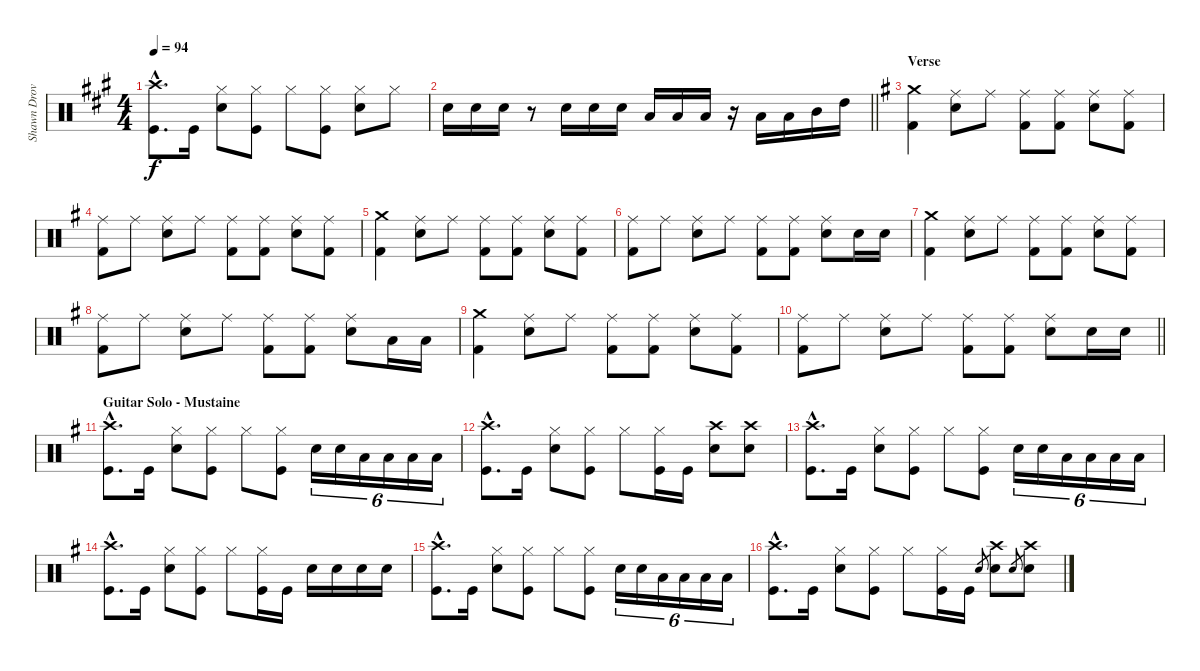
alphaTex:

\track ("Shawn Drover" "Shawn Drov") {instrument percussion}
\staff {score}
\articulation defaults
\ts (4 4)
\tempo 94
\clef neutral
\ks a
("Kick (hit)"{hac} "Crash high (hit)"{hac}).8{d dy f} "Kick (hit)".16 ("Hi-Hat (closed)" "Snare (hit) 2").8 ("Kick (hit)" "Hi-Hat (closed)").8 "Hi-Hat (closed)".8 ("Kick (hit)" "Hi-Hat (closed)").8 ("Hi-Hat (closed)" "Snare (hit) 2").8 "Hi-Hat (closed)".8 |
\barLineRight lightlight "Snare (hit) 2".16 "Snare (hit) 2".16 "Snare (hit) 2".16
r.8 "Snare (hit) 2".16 "Snare (hit) 2".16 "Snare (hit) 2".16 "Low Tom (hit)".16 "Low Tom (hit)".16 "Low Tom (hit)".16 r.16 "Low Tom (hit)".16 "Low Tom (hit)".16 "Mid Tom (hit)".16 "High Tom (hit)".16 |
\section ("" "Verse")
\ks g
("Crash medium (hit)" "Kick (hit) 2").4 ("Ride (middle)" "Snare (hit) 2").8 "Ride (middle)".8 ("Ride (middle)" "Kick (hit) 2").8 ("Ride (middle)" "Kick (hit) 2").8 ("Ride (middle)" "Snare (hit) 2").8 ("Ride (middle)" "Kick (hit) 2").8 |
("Ride (middle)" "Kick (hit) 2").8 "Ride (middle)".8 ("Ride (middle)" "Snare (hit) 2").8 "Ride (middle)".8 ("Ride (middle)" "Kick (hit) 2").8 ("Ride (middle)" "Kick (hit) 2").8 ("Ride (middle)" "Snare (hit) 2").8 ("Ride (middle)" "Kick (hit) 2").8 |
("Crash medium (hit)" "Kick (hit) 2").4 ("Ride (middle)" "Snare (hit) 2").8 "Ride (middle)".8 ("Ride (middle)" "Kick (hit) 2").8 ("Ride (middle)" "Kick (hit) 2").8 ("Ride (middle)" "Snare (hit) 2").8 ("Ride (middle)" "Kick (hit) 2").8 |
("Ride (middle)" "Kick (hit) 2").8 "Ride (middle)".8 ("Ride (middle)" "Snare (hit) 2").8 "Ride (middle)".8 ("Ride (middle)" "Kick (hit) 2").8 ("Ride (middle)" "Kick (hit) 2").8 ("Ride (middle)" "Snare (hit) 2").8 "Snare (hit) 2".16 "Snare (hit) 2".16 |
("Crash medium (hit)" "Kick (hit) 2").4 ("Ride (middle)" "Snare (hit) 2").8 "Ride (middle)".8 ("Ride (middle)" "Kick (hit) 2").8 ("Ride (middle)" "Kick (hit) 2").8 ("Ride (middle)" "Snare (hit) 2").8 ("Ride (middle)" "Kick (hit) 2").8 |
("Ride (middle)" "Kick (hit) 2").8 "Ride (middle)".8 ("Ride (middle)" "Snare (hit) 2").8 "Ride (middle)".8 ("Ride (middle)" "Kick (hit) 2").8 ("Ride (middle)" "Kick (hit) 2").8 ("Ride (middle)" "Snare (hit) 2").8 "Low Tom (hit)".16 "Low Tom (hit)".16 |
("Crash medium (hit)" "Kick (hit) 2").4 ("Ride (middle)" "Snare (hit) 2").8 "Ride (middle)".8 ("Ride (middle)" "Kick (hit) 2").8 ("Ride (middle)" "Kick (hit) 2").8 ("Ride (middle)" "Snare (hit) 2").8 ("Ride (middle)" "Kick (hit) 2").8 |
\barLineRight lightlight
("Ride (middle)" "Kick (hit) 2").8 "Ride (middle)".8 ("Ride (middle)" "Snare (hit) 2").8 "Ride (middle)".8 ("Ride (middle)" "Kick (hit) 2").8 ("Ride (middle)" "Kick (hit) 2").8 ("Ride (middle)" "Snare (hit) 2").8 "Snare (hit) 2".16 "Snare (hit) 2".16 |
\section ("" "Guitar Solo - Mustaine")
("Kick (hit)"{hac} "Crash high (hit)"{hac}).8{d} "Kick (hit)".16 ("Hi-Hat (closed)" "Snare (hit) 2").8 ("Kick (hit)" "Hi-Hat (closed)").8 "Hi-Hat (closed)".8 ("Kick (hit)" "Hi-Hat (closed)").8 "Snare (hit) 2".16{tu (6 4)} "Snare (hit) 2".16{tu (6 4)} "Low Tom (hit)".16{tu (6 4)} "Low Tom (hit)".16{tu (6 4)} "Low Tom (hit)".16{tu (6 4)} "Low Tom (hit)".16{tu (6 4)} |
("Kick (hit)"{hac} "Crash high (hit)"{hac}).8{d} "Kick (hit)".16 ("Hi-Hat (closed)" "Snare (hit) 2").8 ("Kick (hit)" "Hi-Hat (closed)").8 "Hi-Hat (closed)".8 ("Kick (hit)" "Hi-Hat (closed)").16 "Kick (hit)".16 ("Crash high (hit)" "Snare (hit) 2").8 ("Crash high (hit)" "Snare (hit) 2").8 |
("Kick (hit)"{hac} "Crash high (hit)"{hac}).8{d} "Kick (hit)".16 ("Hi-Hat (closed)" "Snare (hit) 2").8 ("Kick (hit)" "Hi-Hat (closed)").8 "Hi-Hat (closed)".8 ("Kick (hit)" "Hi-Hat (closed)").8 "Snare (hit) 2".16{tu (6 4)} "Snare (hit) 2".16{tu (6 4)} "Low Tom (hit)".16{tu (6 4)} "Low Tom (hit)".16{tu (6 4)} "Low Tom (hit)".16{tu (6 4)} "Low Tom (hit)".16{tu (6 4)} |
("Kick (hit)"{hac} "Crash high (hit)"{hac}).8{d} "Kick (hit)".16 ("Hi-Hat (closed)" "Snare (hit) 2").8 ("Kick (hit)" "Hi-Hat (closed)").8 "Hi-Hat (closed)".8 ("Kick (hit)" "Hi-Hat (closed)").16 "Kick (hit)".16 "Snare (hit) 2".16 "Snare (hit) 2".16 "Snare (hit) 2".16 "Snare (hit) 2".16 |
("Kick (hit)"{hac} "Crash high (hit)"{hac}).8{d} "Kick (hit)".16 ("Hi-Hat (closed)" "Snare (hit) 2").8 ("Kick (hit)" "Hi-Hat (closed)").8 "Hi-Hat (closed)".8 ("Kick (hit)" "Hi-Hat (closed)").8 "Snare (hit) 2".16{tu (6 4)} "Snare (hit) 2".16{tu (6 4)} "Low Tom (hit)".16{tu (6 4)} "Low Tom (hit)".16{tu (6 4)} "Low Tom (hit)".16{tu (6 4)} "Low Tom (hit)".16{tu (6 4)} |
("Kick (hit)"{hac} "Crash high (hit)"{hac}).8{d} "Kick (hit)".16 ("Hi-Hat (closed)" "Snare (hit) 2").8 ("Kick (hit)" "Hi-Hat (closed)").8 "Hi-Hat (closed)".8 ("Kick (hit)" "Hi-Hat (closed)").16 "Kick (hit)".16 "Snare (hit) 2".8{gr} ("Crash high (hit)" "Snare (hit) 2").8 "Snare (hit) 2".8{gr} ("Crash high (hit)" "Snare (hit) 2").8
